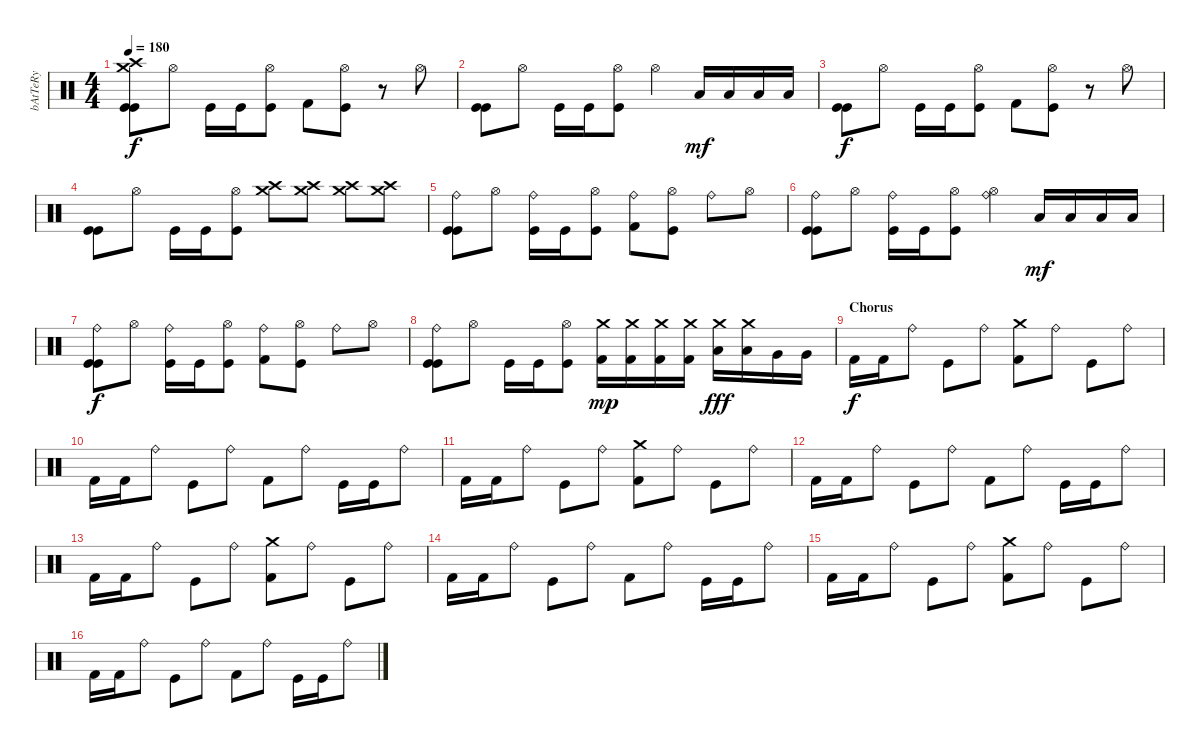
\track ("bAtTeRy" "bAtTeRy") {instrument percussion}
\staff {score}
\articulation defaults
\ts (4 4)
\tempo 180
\clef neutral
\ks c
("Crash medium (hit)" "Crash high (hit)" "Kick (hit)" "Kick (hit)").8{dy f} "Hi-Hat (open)".8 "Kick (hit)".16 "Kick (hit)".16 ("Hi-Hat (open)" "Kick (hit)").8 "Kick (hit) 2".8 ("Hi-Hat (open)" "Kick (hit)").8 r.8 "Hi-Hat (open)".8 |
("Kick (hit)" "Kick (hit)").8 "Hi-Hat (open)".8 "Kick (hit)".16 "Kick (hit)".16 ("Hi-Hat (open)" "Kick (hit)").8 "Hi-Hat (open)".4 "Low Tom (hit)".16{dy mf} "Low Tom (hit)".16 "Low Tom (hit)".16 "Low Tom (hit)".16 |
("Kick (hit)" "Kick (hit)").8{dy f} "Hi-Hat (open)".8 "Kick (hit)".16 "Kick (hit)".16 ("Hi-Hat (open)" "Kick (hit)").8 "Kick (hit) 2".8 ("Hi-Hat (open)" "Kick (hit)").8 r.8 "Hi-Hat (open)".8 |
("Kick (hit)" "Kick (hit)").8 "Hi-Hat (open)".8 "Kick (hit)".16 "Kick (hit)".16 ("Hi-Hat (open)" "Kick (hit)").8 ("Crash medium (hit)" "Crash high (hit)").8 ("Crash medium (hit)" "Crash high (hit)").8 ("Crash medium (hit)" "Crash high (hit)").8 ("Crash medium (hit)" "Crash high (hit)").8 |
("Ride (bell)" "Kick (hit)" "Kick (hit)").8 "Hi-Hat (open)".8 ("Ride (bell)" "Kick (hit)").16 "Kick (hit)".16 ("Hi-Hat (open)" "Kick (hit)").8 ("Ride (bell)" "Kick (hit) 2").8 ("Hi-Hat (open)" "Kick (hit)").8 "Ride (bell)".8 "Hi-Hat (open)".8 |
("Ride (bell)" "Kick (hit)" "Kick (hit)").8 "Hi-Hat (open)".8 ("Ride (bell)" "Kick (hit)").16 "Kick (hit)".16 ("Hi-Hat (open)" "Kick (hit)").8 ("Hi-Hat (open)" "Ride (bell)").4 "Low Tom (hit)".16{dy mf} "Low Tom (hit)".16 "Low Tom (hit)".16 "Low Tom (hit)".16 |
("Ride (bell)" "Kick (hit)" "Kick (hit)").8{dy f} "Hi-Hat (open)".8 ("Ride (bell)" "Kick (hit)").16 "Kick (hit)".16 ("Hi-Hat (open)" "Kick (hit)").8 ("Ride (bell)" "Kick (hit) 2").8 ("Hi-Hat (open)" "Kick (hit)").8 "Ride (bell)".8 "Hi-Hat (open)".8 |
("Ride (bell)" "Kick (hit)" "Kick (hit)").8 "Hi-Hat (open)".8 "Kick (hit)".16 "Kick (hit)".16 ("Hi-Hat (open)" "Kick (hit)").8 ("Crash medium (hit)" "Kick (hit) 2").16{dy mp} ("Crash medium (hit)" "Kick (hit) 2").16 ("Crash medium (hit)" "Kick (hit) 2").16 ("Crash medium (hit)" "Kick (hit) 2").16 ("Crash medium (hit)" "Low Tom (hit)").16{dy fff} ("Crash medium (hit)" "Low Tom (hit)").16 "Very Low Tom (hit)".16 "Very Low Tom (hit)".16 |
\section ("" "Chorus")
"Kick (hit) 2".16{dy f} "Kick (hit) 2".16 "Ride (bell)".8 "Kick (hit)".8 "Ride (bell)".8 ("Crash medium (hit)" "Kick (hit) 2").8 "Ride (bell)".8 "Kick (hit)".8 "Ride (bell)".8 |
"Kick (hit) 2".16 "Kick (hit) 2".16 "Ride (bell)".8 "Kick (hit)".8 "Ride (bell)".8 "Kick (hit) 2".8 "Ride (bell)".8 "Kick (hit)".16 "Kick (hit)".16 "Ride (bell)".8 |
"Kick (hit) 2".16 "Kick (hit) 2".16 "Ride (bell)".8 "Kick (hit)".8 "Ride (bell)".8 ("Crash medium (hit)" "Kick (hit) 2").8 "Ride (bell)".8 "Kick (hit)".8 "Ride (bell)".8 |
"Kick (hit) 2".16 "Kick (hit) 2".16 "Ride (bell)".8 "Kick (hit)".8 "Ride (bell)".8 "Kick (hit) 2".8 "Ride (bell)".8 "Kick (hit)".16 "Kick (hit)".16 "Ride (bell)".8 |
"Kick (hit) 2".16 "Kick (hit) 2".16 "Ride (bell)".8 "Kick (hit)".8 "Ride (bell)".8 ("Crash medium (hit)" "Kick (hit) 2").8 "Ride (bell)".8 "Kick (hit)".8 "Ride (bell)".8 |
"Kick (hit) 2".16 "Kick (hit) 2".16 "Ride (bell)".8 "Kick (hit)".8 "Ride (bell)".8 "Kick (hit) 2".8 "Ride (bell)".8 "Kick (hit)".16 "Kick (hit)".16 "Ride (bell)".8 |
"Kick (hit) 2".16 "Kick (hit) 2".16 "Ride (bell)".8 "Kick (hit)".8 "Ride (bell)".8 ("Crash medium (hit)" "Kick (hit) 2").8 "Ride (bell)".8 "Kick (hit)".8 "Ride (bell)".8 |
"Kick (hit) 2".16 "Kick (hit) 2".16 "Ride (bell)".8 "Kick (hit)".8 "Ride (bell)".8 "Kick (hit) 2".8 "Ride (bell)".8 "Kick (hit)".16 "Kick (hit)".16 "Ride (bell)".8
